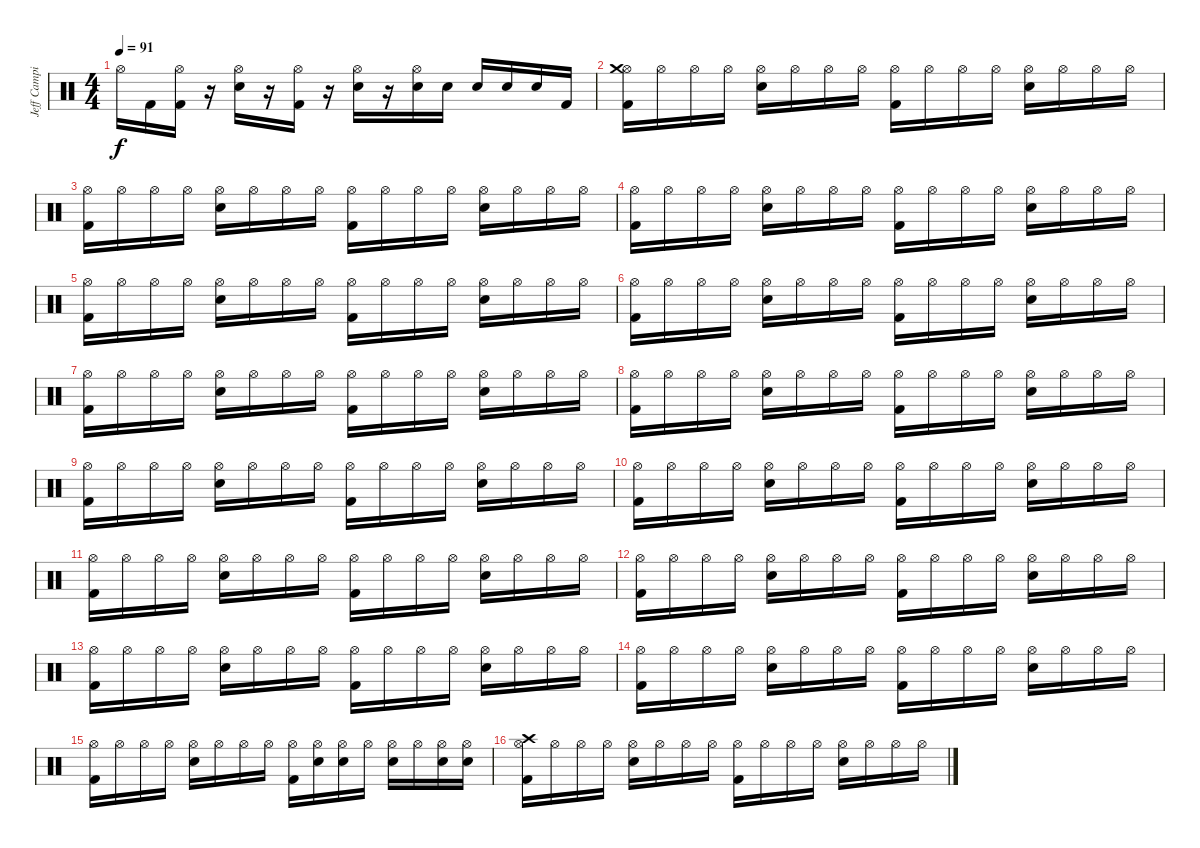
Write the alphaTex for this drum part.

\track ("Jeff Campitelli" "Jeff Campi") {instrument percussion}
\staff {score}
\articulation defaults
\ts (4 4)
\tempo 91
\clef neutral
\ks c "Hi-Hat (open)".16{dy f} "Kick (hit) 2".16
("Hi-Hat (open)" "Kick (hit) 2").16 r.16 ("Hi-Hat (open)" "Snare (hit) 2").16 r.16 ("Kick (hit) 2" "Hi-Hat (open)").16 r.16 ("Snare (hit) 2" "Hi-Hat (open)").16 r.16 ("Snare (hit) 2" "Hi-Hat (open)").16 "Snare (hit) 2".16 "Snare (hit) 2".16 "Snare (hit) 2".16 "Snare (hit) 2".16 "Kick (hit) 2".16 |
("Kick (hit) 2" "Hi-Hat (open)" "Crash medium (hit)").16 "Hi-Hat (open)".16 "Hi-Hat (open)".16 "Hi-Hat (open)".16 ("Hi-Hat (open)" "Snare (hit) 2").16 "Hi-Hat (open)".16 "Hi-Hat (open)".16 "Hi-Hat (open)".16 ("Kick (hit) 2" "Hi-Hat (open)").16 "Hi-Hat (open)".16 "Hi-Hat (open)".16 "Hi-Hat (open)".16 ("Hi-Hat (open)" "Snare (hit) 2").16 "Hi-Hat (open)".16 "Hi-Hat (open)".16 "Hi-Hat (open)".16 |
("Kick (hit) 2" "Hi-Hat (open)").16 "Hi-Hat (open)".16 "Hi-Hat (open)".16 "Hi-Hat (open)".16 ("Hi-Hat (open)" "Snare (hit) 2").16 "Hi-Hat (open)".16 "Hi-Hat (open)".16 "Hi-Hat (open)".16 ("Kick (hit) 2" "Hi-Hat (open)").16 "Hi-Hat (open)".16 "Hi-Hat (open)".16 "Hi-Hat (open)".16 ("Hi-Hat (open)" "Snare (hit) 2").16 "Hi-Hat (open)".16 "Hi-Hat (open)".16 "Hi-Hat (open)".16 |
("Kick (hit) 2" "Hi-Hat (open)").16 "Hi-Hat (open)".16 "Hi-Hat (open)".16 "Hi-Hat (open)".16 ("Snare (hit) 2" "Hi-Hat (open)").16 "Hi-Hat (open)".16 "Hi-Hat (open)".16 "Hi-Hat (open)".16 ("Hi-Hat (open)" "Kick (hit) 2").16 "Hi-Hat (open)".16 "Hi-Hat (open)".16 "Hi-Hat (open)".16 ("Snare (hit) 2" "Hi-Hat (open)").16 "Hi-Hat (open)".16 "Hi-Hat (open)".16 "Hi-Hat (open)".16 |
("Hi-Hat (open)" "Kick (hit) 2").16 "Hi-Hat (open)".16 "Hi-Hat (open)".16 "Hi-Hat (open)".16 ("Snare (hit) 2" "Hi-Hat (open)").16 "Hi-Hat (open)".16 "Hi-Hat (open)".16 "Hi-Hat (open)".16 ("Hi-Hat (open)" "Kick (hit) 2").16 "Hi-Hat (open)".16 "Hi-Hat (open)".16 "Hi-Hat (open)".16 ("Hi-Hat (open)" "Snare (hit) 2").16 "Hi-Hat (open)".16 "Hi-Hat (open)".16 "Hi-Hat (open)".16 |
("Hi-Hat (open)" "Kick (hit) 2").16 "Hi-Hat (open)".16 "Hi-Hat (open)".16 "Hi-Hat (open)".16 ("Snare (hit) 2" "Hi-Hat (open)").16 "Hi-Hat (open)".16 "Hi-Hat (open)".16 "Hi-Hat (open)".16 ("Hi-Hat (open)" "Kick (hit) 2").16 "Hi-Hat (open)".16 "Hi-Hat (open)".16 "Hi-Hat (open)".16 ("Snare (hit) 2" "Hi-Hat (open)").16 "Hi-Hat (open)".16 "Hi-Hat (open)".16 "Hi-Hat (open)".16 |
("Hi-Hat (open)" "Kick (hit) 2").16 "Hi-Hat (open)".16 "Hi-Hat (open)".16 "Hi-Hat (open)".16 ("Snare (hit) 2" "Hi-Hat (open)").16 "Hi-Hat (open)".16 "Hi-Hat (open)".16 "Hi-Hat (open)".16 ("Kick (hit) 2" "Hi-Hat (open)").16 "Hi-Hat (open)".16 "Hi-Hat (open)".16 "Hi-Hat (open)".16 ("Hi-Hat (open)" "Snare (hit) 2").16 "Hi-Hat (open)".16 "Hi-Hat (open)".16 "Hi-Hat (open)".16 |
("Kick (hit) 2" "Hi-Hat (open)").16 "Hi-Hat (open)".16 "Hi-Hat (open)".16 "Hi-Hat (open)".16 ("Hi-Hat (open)" "Snare (hit) 2").16 "Hi-Hat (open)".16 "Hi-Hat (open)".16 "Hi-Hat (open)".16 ("Kick (hit) 2" "Hi-Hat (open)").16 "Hi-Hat (open)".16 "Hi-Hat (open)".16 "Hi-Hat (open)".16 ("Hi-Hat (open)" "Snare (hit) 2").16 "Hi-Hat (open)".16 "Hi-Hat (open)".16 "Hi-Hat (open)".16 |
("Kick (hit) 2" "Hi-Hat (open)").16 "Hi-Hat (open)".16 "Hi-Hat (open)".16 "Hi-Hat (open)".16 ("Hi-Hat (open)" "Snare (hit) 2").16 "Hi-Hat (open)".16 "Hi-Hat (open)".16 "Hi-Hat (open)".16 ("Kick (hit) 2" "Hi-Hat (open)").16 "Hi-Hat (open)".16 "Hi-Hat (open)".16 "Hi-Hat (open)".16 ("Hi-Hat (open)" "Snare (hit) 2").16 "Hi-Hat (open)".16 "Hi-Hat (open)".16 "Hi-Hat (open)".16 |
("Kick (hit) 2" "Hi-Hat (open)").16 "Hi-Hat (open)".16 "Hi-Hat (open)".16 "Hi-Hat (open)".16 ("Hi-Hat (open)" "Snare (hit) 2").16 "Hi-Hat (open)".16 "Hi-Hat (open)".16 "Hi-Hat (open)".16 ("Kick (hit) 2" "Hi-Hat (open)").16 "Hi-Hat (open)".16 "Hi-Hat (open)".16 "Hi-Hat (open)".16 ("Hi-Hat (open)" "Snare (hit) 2").16 "Hi-Hat (open)".16 "Hi-Hat (open)".16 "Hi-Hat (open)".16 |
("Hi-Hat (open)" "Kick (hit) 2").16 "Hi-Hat (open)".16 "Hi-Hat (open)".16 "Hi-Hat (open)".16 ("Snare (hit) 2" "Hi-Hat (open)").16 "Hi-Hat (open)".16 "Hi-Hat (open)".16 "Hi-Hat (open)".16 ("Hi-Hat (open)" "Kick (hit) 2").16 "Hi-Hat (open)".16 "Hi-Hat (open)".16 "Hi-Hat (open)".16 ("Snare (hit) 2" "Hi-Hat (open)").16 "Hi-Hat (open)".16 "Hi-Hat (open)".16 "Hi-Hat (open)".16 |
("Hi-Hat (open)" "Kick (hit) 2").16 "Hi-Hat (open)".16 "Hi-Hat (open)".16 "Hi-Hat (open)".16 ("Snare (hit) 2" "Hi-Hat (open)").16 "Hi-Hat (open)".16 "Hi-Hat (open)".16 "Hi-Hat (open)".16 ("Hi-Hat (open)" "Kick (hit) 2").16 "Hi-Hat (open)".16 "Hi-Hat (open)".16 "Hi-Hat (open)".16 ("Hi-Hat (open)" "Snare (hit) 2").16 "Hi-Hat (open)".16 "Hi-Hat (open)".16 "Hi-Hat (open)".16 |
("Kick (hit) 2" "Hi-Hat (open)").16 "Hi-Hat (open)".16 "Hi-Hat (open)".16 "Hi-Hat (open)".16 ("Hi-Hat (open)" "Snare (hit) 2").16 "Hi-Hat (open)".16 "Hi-Hat (open)".16 "Hi-Hat (open)".16 ("Kick (hit) 2" "Hi-Hat (open)").16 "Hi-Hat (open)".16 "Hi-Hat (open)".16 "Hi-Hat (open)".16 ("Hi-Hat (open)" "Snare (hit) 2").16 "Hi-Hat (open)".16 "Hi-Hat (open)".16 "Hi-Hat (open)".16 |
("Kick (hit) 2" "Hi-Hat (open)").16 "Hi-Hat (open)".16 "Hi-Hat (open)".16 "Hi-Hat (open)".16 ("Snare (hit) 2" "Hi-Hat (open)").16 "Hi-Hat (open)".16 "Hi-Hat (open)".16 "Hi-Hat (open)".16 ("Hi-Hat (open)" "Kick (hit) 2").16 "Hi-Hat (open)".16 "Hi-Hat (open)".16 "Hi-Hat (open)".16 ("Snare (hit) 2" "Hi-Hat (open)").16 "Hi-Hat (open)".16 "Hi-Hat (open)".16 "Hi-Hat (open)".16 |
("Hi-Hat (open)" "Kick (hit) 2").16 "Hi-Hat (open)".16 "Hi-Hat (open)".16 "Hi-Hat (open)".16 ("Snare (hit) 2" "Hi-Hat (open)").16 "Hi-Hat (open)".16 "Hi-Hat (open)".16 "Hi-Hat (open)".16 ("Hi-Hat (open)" "Kick (hit) 2").16 ("Hi-Hat (open)" "Snare (hit) 2").16 ("Hi-Hat (open)" "Snare (hit) 2").16 "Hi-Hat (open)".16 ("Hi-Hat (open)" "Snare (hit) 2").16 "Hi-Hat (open)".16 ("Hi-Hat (open)" "Snare (hit) 2").16 ("Hi-Hat (open)" "Snare (hit) 2").16 |
("Crash high (hit)" "Kick (hit) 2" "Hi-Hat (open)").16 "Hi-Hat (open)".16 "Hi-Hat (open)".16 "Hi-Hat (open)".16 ("Snare (hit) 2" "Hi-Hat (open)").16 "Hi-Hat (open)".16 "Hi-Hat (open)".16 "Hi-Hat (open)".16 ("Kick (hit) 2" "Hi-Hat (open)").16 "Hi-Hat (open)".16 "Hi-Hat (open)".16 "Hi-Hat (open)".16 ("Snare (hit) 2" "Hi-Hat (open)").16 "Hi-Hat (open)".16 "Hi-Hat (open)".16 "Hi-Hat (open)".16
